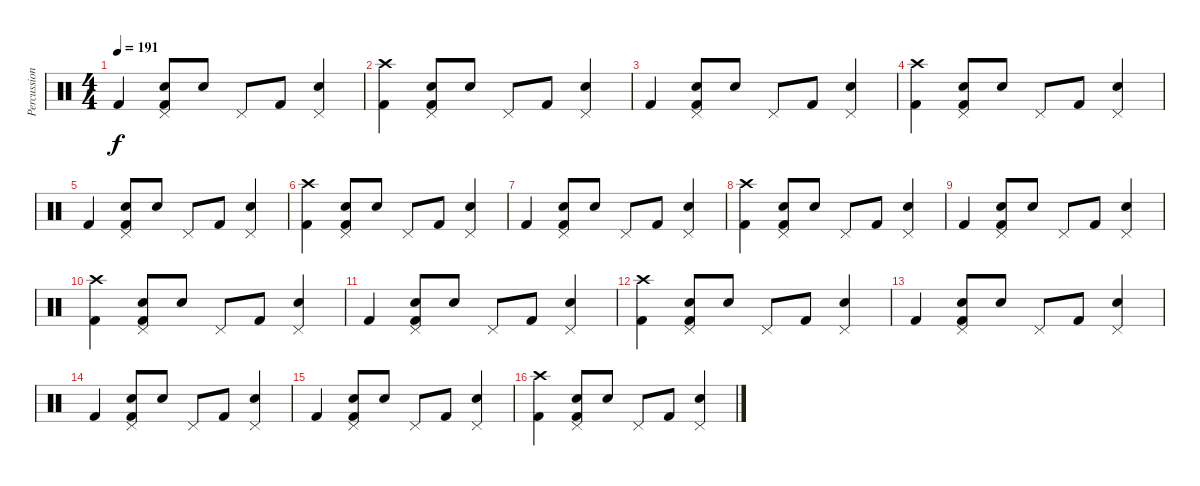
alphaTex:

\track ("Percussion" "Percussion") {instrument percussion}
\staff {score}
\articulation defaults
\ts (4 4)
\tempo 191
\clef neutral
\ks c "Kick (hit) 2".4{dy f}
("Pedal Hi-Hat (hit)" "Snare (hit) 2" "Kick (hit) 2").8 "Snare (hit) 2".8 "Pedal Hi-Hat (hit)".8 "Kick (hit) 2".8 ("Pedal Hi-Hat (hit)" "Snare (hit) 2").4 |
("Crash high (hit)" "Kick (hit) 2").4 ("Pedal Hi-Hat (hit)" "Snare (hit) 2" "Kick (hit) 2").8 "Snare (hit) 2".8 "Pedal Hi-Hat (hit)".8 "Kick (hit) 2".8 ("Pedal Hi-Hat (hit)" "Snare (hit) 2").4 |
"Kick (hit) 2".4 ("Pedal Hi-Hat (hit)" "Snare (hit) 2" "Kick (hit) 2").8 "Snare (hit) 2".8 "Pedal Hi-Hat (hit)".8 "Kick (hit) 2".8 ("Pedal Hi-Hat (hit)" "Snare (hit) 2").4 |
("Crash high (hit)" "Kick (hit) 2").4 ("Pedal Hi-Hat (hit)" "Snare (hit) 2" "Kick (hit) 2").8 "Snare (hit) 2".8 "Pedal Hi-Hat (hit)".8 "Kick (hit) 2".8 ("Pedal Hi-Hat (hit)" "Snare (hit) 2").4 |
"Kick (hit) 2".4 ("Pedal Hi-Hat (hit)" "Snare (hit) 2" "Kick (hit) 2").8 "Snare (hit) 2".8 "Pedal Hi-Hat (hit)".8 "Kick (hit) 2".8 ("Pedal Hi-Hat (hit)" "Snare (hit) 2").4 |
("Crash high (hit)" "Kick (hit) 2").4 ("Pedal Hi-Hat (hit)" "Snare (hit) 2" "Kick (hit) 2").8 "Snare (hit) 2".8 "Pedal Hi-Hat (hit)".8 "Kick (hit) 2".8 ("Pedal Hi-Hat (hit)" "Snare (hit) 2").4 |
"Kick (hit) 2".4 ("Pedal Hi-Hat (hit)" "Snare (hit) 2" "Kick (hit) 2").8 "Snare (hit) 2".8 "Pedal Hi-Hat (hit)".8 "Kick (hit) 2".8 ("Pedal Hi-Hat (hit)" "Snare (hit) 2").4 |
("Crash high (hit)" "Kick (hit) 2").4 ("Pedal Hi-Hat (hit)" "Snare (hit) 2" "Kick (hit) 2").8 "Snare (hit) 2".8 "Pedal Hi-Hat (hit)".8 "Kick (hit) 2".8 ("Pedal Hi-Hat (hit)" "Snare (hit) 2").4 |
"Kick (hit) 2".4 ("Pedal Hi-Hat (hit)" "Snare (hit) 2" "Kick (hit) 2").8 "Snare (hit) 2".8 "Pedal Hi-Hat (hit)".8 "Kick (hit) 2".8 ("Pedal Hi-Hat (hit)" "Snare (hit) 2").4 |
("Crash high (hit)" "Kick (hit) 2").4 ("Pedal Hi-Hat (hit)" "Snare (hit) 2" "Kick (hit) 2").8 "Snare (hit) 2".8 "Pedal Hi-Hat (hit)".8 "Kick (hit) 2".8 ("Pedal Hi-Hat (hit)" "Snare (hit) 2").4 |
"Kick (hit) 2".4 ("Pedal Hi-Hat (hit)" "Snare (hit) 2" "Kick (hit) 2").8 "Snare (hit) 2".8 "Pedal Hi-Hat (hit)".8 "Kick (hit) 2".8 ("Pedal Hi-Hat (hit)" "Snare (hit) 2").4 |
("Crash high (hit)" "Kick (hit) 2").4 ("Pedal Hi-Hat (hit)" "Snare (hit) 2" "Kick (hit) 2").8 "Snare (hit) 2".8 "Pedal Hi-Hat (hit)".8 "Kick (hit) 2".8 ("Pedal Hi-Hat (hit)" "Snare (hit) 2").4 |
"Kick (hit) 2".4 ("Pedal Hi-Hat (hit)" "Snare (hit) 2" "Kick (hit) 2").8 "Snare (hit) 2".8 "Pedal Hi-Hat (hit)".8 "Kick (hit) 2".8 ("Pedal Hi-Hat (hit)" "Snare (hit) 2").4 |
"Kick (hit) 2".4 ("Pedal Hi-Hat (hit)" "Snare (hit) 2" "Kick (hit) 2").8 "Snare (hit) 2".8 "Pedal Hi-Hat (hit)".8 "Kick (hit) 2".8 ("Pedal Hi-Hat (hit)" "Snare (hit) 2").4 |
"Kick (hit) 2".4{volume 0} ("Pedal Hi-Hat (hit)" "Snare (hit) 2" "Kick (hit) 2").8 "Snare (hit) 2".8 "Pedal Hi-Hat (hit)".8 "Kick (hit) 2".8 ("Pedal Hi-Hat (hit)" "Snare (hit) 2").4 |
("Crash high (hit)" "Kick (hit) 2").4 ("Pedal Hi-Hat (hit)" "Snare (hit) 2" "Kick (hit) 2").8 "Snare (hit) 2".8 "Pedal Hi-Hat (hit)".8 "Kick (hit) 2".8 ("Pedal Hi-Hat (hit)" "Snare (hit) 2").4
